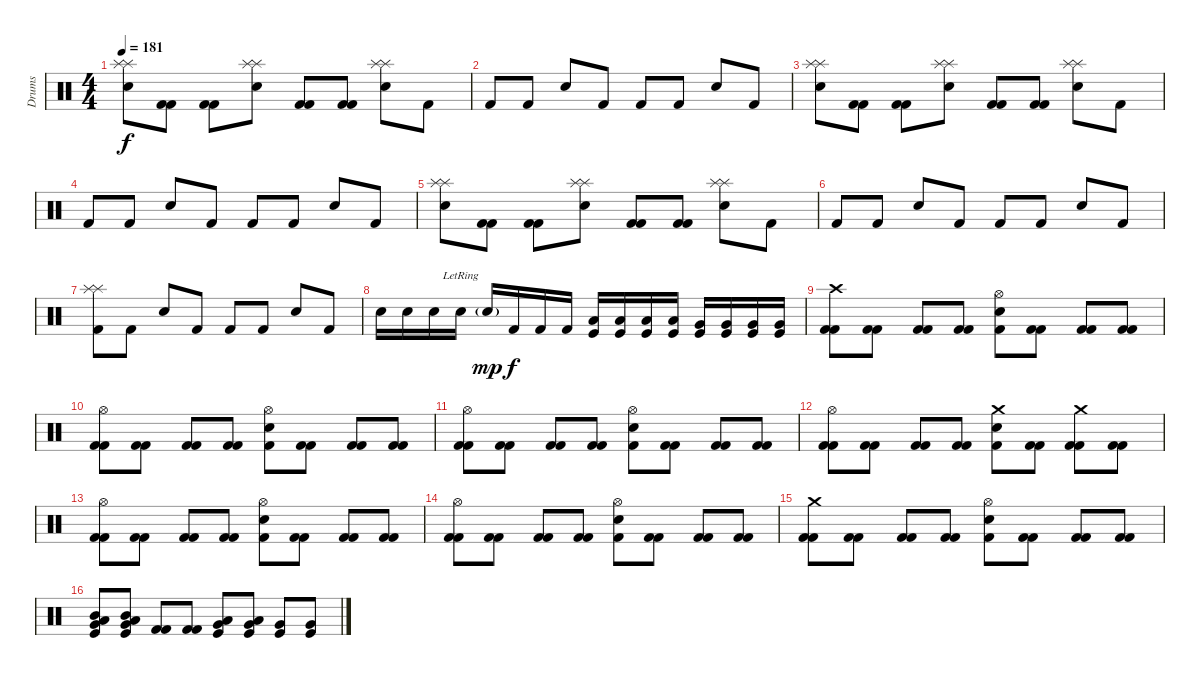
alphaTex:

\track ("Drums" "Drums") {instrument percussion}
\staff {score}
\articulation defaults
\ts (4 4)
\tempo 181
\clef neutral
\ks c
("Splash (hit)" "Splash (hit)" "Electric Snare (hit)").8{dy f} ("Kick (hit) 2" "Kick (hit) 2").8 ("Kick (hit) 2" "Kick (hit) 2").8 ("Splash (hit)" "Splash (hit)" "Electric Snare (hit)").8 ("Kick (hit) 2" "Kick (hit) 2").8 ("Kick (hit) 2" "Kick (hit) 2").8 ("Splash (hit)" "Splash (hit)" "Electric Snare (hit)").8 "Kick (hit) 2".8 |
"Kick (hit) 2".8 "Kick (hit) 2".8 "Electric Snare (hit)".8 "Kick (hit) 2".8 "Kick (hit) 2".8 "Kick (hit) 2".8 "Electric Snare (hit)".8 "Kick (hit) 2".8 |
("Splash (hit)" "Splash (hit)" "Electric Snare (hit)").8 ("Kick (hit) 2" "Kick (hit) 2").8 ("Kick (hit) 2" "Kick (hit) 2").8 ("Splash (hit)" "Splash (hit)" "Electric Snare (hit)").8 ("Kick (hit) 2" "Kick (hit) 2").8 ("Kick (hit) 2" "Kick (hit) 2").8 ("Splash (hit)" "Splash (hit)" "Electric Snare (hit)").8 "Kick (hit) 2".8 |
"Kick (hit) 2".8 "Kick (hit) 2".8 "Electric Snare (hit)".8 "Kick (hit) 2".8 "Kick (hit) 2".8 "Kick (hit) 2".8 "Electric Snare (hit)".8 "Kick (hit) 2".8 |
("Splash (hit)" "Splash (hit)" "Electric Snare (hit)").8 ("Kick (hit) 2" "Kick (hit) 2").8 ("Kick (hit) 2" "Kick (hit) 2").8 ("Splash (hit)" "Splash (hit)" "Electric Snare (hit)").8 ("Kick (hit) 2" "Kick (hit) 2").8 ("Kick (hit) 2" "Kick (hit) 2").8 ("Splash (hit)" "Splash (hit)" "Electric Snare (hit)").8 "Kick (hit) 2".8 |
"Kick (hit) 2".8 "Kick (hit) 2".8 "Electric Snare (hit)".8 "Kick (hit) 2".8 "Kick (hit) 2".8 "Kick (hit) 2".8 "Electric Snare (hit)".8 "Kick (hit) 2".8 |
("Splash (hit)" "Splash (hit)" "Kick (hit) 2").8 "Kick (hit) 2".8 "Electric Snare (hit)".8 "Kick (hit) 2".8 "Kick (hit) 2".8 "Kick (hit) 2".8 "Electric Snare (hit)".8 "Kick (hit) 2".8 |
"Electric Snare (hit)".16 "Electric Snare (hit)".16 "Electric Snare (hit)".16 "Electric Snare (hit)"{lr}.16 "Electric Snare (hit)"{g}.16{dy mp} "Kick (hit) 2".16{dy f} "Kick (hit) 2".16 "Kick (hit) 2".16 ("Low Tom (hit)" "Kick (hit)").16 ("Low Tom (hit)" "Kick (hit)").16 ("Low Tom (hit)" "Kick (hit)").16 ("Low Tom (hit)" "Kick (hit)").16 ("Very Low Tom (hit)" "Kick (hit)").16 ("Very Low Tom (hit)" "Kick (hit)").16 ("Very Low Tom (hit)" "Kick (hit)").16 ("Very Low Tom (hit)" "Kick (hit)").16 |
("Crash high (hit)" "Kick (hit) 2" "Kick (hit) 2").8 ("Kick (hit) 2" "Kick (hit) 2").8 ("Kick (hit) 2" "Kick (hit) 2").8 ("Kick (hit) 2" "Kick (hit) 2").8 ("Hi-Hat (open)" "Electric Snare (hit)" "Kick (hit) 2").8 ("Kick (hit) 2" "Kick (hit) 2").8 ("Kick (hit) 2" "Kick (hit) 2").8 ("Kick (hit) 2" "Kick (hit) 2").8 |
("Hi-Hat (open)" "Kick (hit) 2" "Kick (hit) 2").8 ("Kick (hit) 2" "Kick (hit) 2").8 ("Kick (hit) 2" "Kick (hit) 2").8 ("Kick (hit) 2" "Kick (hit) 2").8 ("Hi-Hat (open)" "Electric Snare (hit)" "Kick (hit) 2").8 ("Kick (hit) 2" "Kick (hit) 2").8 ("Kick (hit) 2" "Kick (hit) 2").8 ("Kick (hit) 2" "Kick (hit) 2").8 |
("Hi-Hat (open)" "Kick (hit) 2" "Kick (hit) 2").8 ("Kick (hit) 2" "Kick (hit) 2").8 ("Kick (hit) 2" "Kick (hit) 2").8 ("Kick (hit) 2" "Kick (hit) 2").8 ("Hi-Hat (open)" "Electric Snare (hit)" "Kick (hit) 2").8 ("Kick (hit) 2" "Kick (hit) 2").8 ("Kick (hit) 2" "Kick (hit) 2").8 ("Kick (hit) 2" "Kick (hit) 2").8 |
("Hi-Hat (open)" "Kick (hit) 2" "Kick (hit) 2").8 ("Kick (hit) 2" "Kick (hit) 2").8 ("Kick (hit) 2" "Kick (hit) 2").8 ("Kick (hit) 2" "Kick (hit) 2").8 ("Crash medium (hit)" "Electric Snare (hit)" "Kick (hit) 2").8 ("Kick (hit) 2" "Kick (hit) 2").8 ("Crash medium (hit)" "Kick (hit) 2" "Kick (hit) 2").8 ("Kick (hit) 2" "Kick (hit) 2").8 |
("Hi-Hat (open)" "Kick (hit) 2" "Kick (hit) 2").8 ("Kick (hit) 2" "Kick (hit) 2").8 ("Kick (hit) 2" "Kick (hit) 2").8 ("Kick (hit) 2" "Kick (hit) 2").8 ("Hi-Hat (open)" "Electric Snare (hit)" "Kick (hit) 2").8 ("Kick (hit) 2" "Kick (hit) 2").8 ("Kick (hit) 2" "Kick (hit) 2").8 ("Kick (hit) 2" "Kick (hit) 2").8 |
("Hi-Hat (open)" "Kick (hit) 2" "Kick (hit) 2").8 ("Kick (hit) 2" "Kick (hit) 2").8 ("Kick (hit) 2" "Kick (hit) 2").8 ("Kick (hit) 2" "Kick (hit) 2").8 ("Hi-Hat (open)" "Electric Snare (hit)" "Kick (hit) 2").8 ("Kick (hit) 2" "Kick (hit) 2").8 ("Kick (hit) 2" "Kick (hit) 2").8 ("Kick (hit) 2" "Kick (hit) 2").8 |
("Crash medium (hit)" "Kick (hit) 2" "Kick (hit) 2").8 ("Kick (hit) 2" "Kick (hit) 2").8 ("Kick (hit) 2" "Kick (hit) 2").8 ("Kick (hit) 2" "Kick (hit) 2").8 ("Hi-Hat (open)" "Electric Snare (hit)" "Kick (hit) 2").8 ("Kick (hit) 2" "Kick (hit) 2").8 ("Kick (hit) 2" "Kick (hit) 2").8 ("Kick (hit) 2" "Kick (hit) 2").8 |
("Mid Tom (hit)" "Low Tom (hit)" "Very Low Tom (hit)" "Kick (hit)").8 ("Mid Tom (hit)" "Low Tom (hit)" "Very Low Tom (hit)" "Kick (hit)").8 ("Kick (hit) 2" "Kick (hit) 2").8 ("Kick (hit) 2" "Kick (hit) 2").8 ("Low Tom (hit)" "Very Low Tom (hit)" "Kick (hit)").8 ("Low Tom (hit)" "Very Low Tom (hit)" "Kick (hit)").8 ("Very Low Tom (hit)" "Kick (hit)").8 ("Very Low Tom (hit)" "Kick (hit)").8
